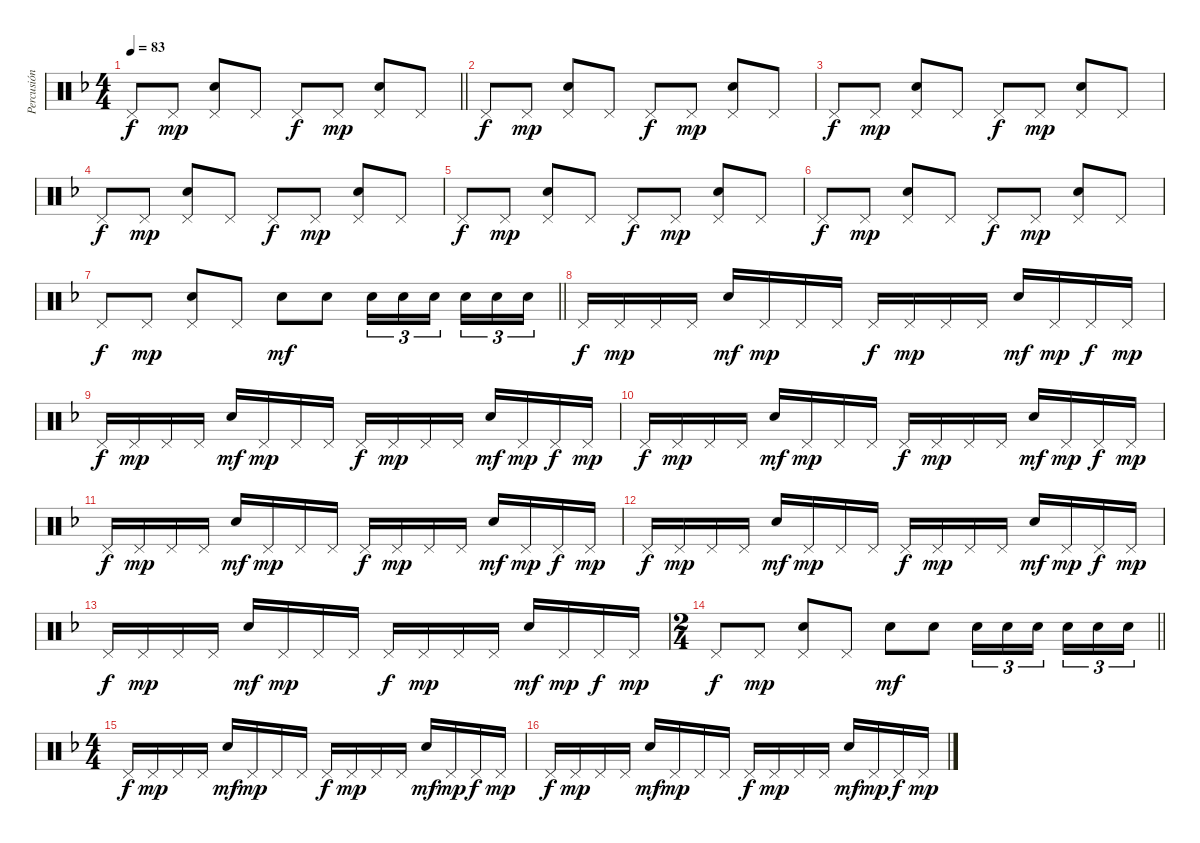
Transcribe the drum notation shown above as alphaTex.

\track ("Percusión" "Percusión") {instrument percussion}
\staff {score}
\articulation defaults
\ts (4 4)
\tempo 83
\clef neutral
\barLineRight lightlight
\ks dminor "Pedal Hi-Hat (hit)".8{dy f} "Pedal Hi-Hat (hit)".8{dy mp}
("Pedal Hi-Hat (hit)" "Electric Snare (hit)").8 "Pedal Hi-Hat (hit)".8 "Pedal Hi-Hat (hit)".8{dy f} "Pedal Hi-Hat (hit)".8{dy mp} ("Pedal Hi-Hat (hit)" "Electric Snare (hit)").8 "Pedal Hi-Hat (hit)".8 |
"Pedal Hi-Hat (hit)".8{dy f} "Pedal Hi-Hat (hit)".8{dy mp} ("Pedal Hi-Hat (hit)" "Electric Snare (hit)").8 "Pedal Hi-Hat (hit)".8 "Pedal Hi-Hat (hit)".8{dy f} "Pedal Hi-Hat (hit)".8{dy mp} ("Pedal Hi-Hat (hit)" "Electric Snare (hit)").8 "Pedal Hi-Hat (hit)".8 |
"Pedal Hi-Hat (hit)".8{dy f} "Pedal Hi-Hat (hit)".8{dy mp} ("Pedal Hi-Hat (hit)" "Electric Snare (hit)").8 "Pedal Hi-Hat (hit)".8 "Pedal Hi-Hat (hit)".8{dy f} "Pedal Hi-Hat (hit)".8{dy mp} ("Pedal Hi-Hat (hit)" "Electric Snare (hit)").8 "Pedal Hi-Hat (hit)".8 |
"Pedal Hi-Hat (hit)".8{dy f} "Pedal Hi-Hat (hit)".8{dy mp} ("Pedal Hi-Hat (hit)" "Electric Snare (hit)").8 "Pedal Hi-Hat (hit)".8 "Pedal Hi-Hat (hit)".8{dy f} "Pedal Hi-Hat (hit)".8{dy mp} ("Pedal Hi-Hat (hit)" "Electric Snare (hit)").8 "Pedal Hi-Hat (hit)".8 |
"Pedal Hi-Hat (hit)".8{dy f} "Pedal Hi-Hat (hit)".8{dy mp} ("Pedal Hi-Hat (hit)" "Electric Snare (hit)").8 "Pedal Hi-Hat (hit)".8 "Pedal Hi-Hat (hit)".8{dy f} "Pedal Hi-Hat (hit)".8{dy mp} ("Pedal Hi-Hat (hit)" "Electric Snare (hit)").8 "Pedal Hi-Hat (hit)".8 |
"Pedal Hi-Hat (hit)".8{dy f} "Pedal Hi-Hat (hit)".8{dy mp} ("Pedal Hi-Hat (hit)" "Electric Snare (hit)").8 "Pedal Hi-Hat (hit)".8 "Pedal Hi-Hat (hit)".8{dy f} "Pedal Hi-Hat (hit)".8{dy mp} ("Pedal Hi-Hat (hit)" "Electric Snare (hit)").8 "Pedal Hi-Hat (hit)".8 |
\barLineRight lightlight "Pedal Hi-Hat (hit)".8{dy f} "Pedal Hi-Hat (hit)".8{dy mp}
("Pedal Hi-Hat (hit)" "Electric Snare (hit)").8 "Pedal Hi-Hat (hit)".8 "Electric Snare (hit)".8{dy mf} "Electric Snare (hit)".8 "Electric Snare (hit)".16{tu (3 2)} "Electric Snare (hit)".16{tu (3 2)} "Electric Snare (hit)".16{tu (3 2) beam splitsecondary} "Electric Snare (hit)".16{tu (3 2)} "Electric Snare (hit)".16{tu (3 2)} "Electric Snare (hit)".16{tu (3 2)} |
"Pedal Hi-Hat (hit)".16{dy f} "Pedal Hi-Hat (hit)".16{dy mp} "Pedal Hi-Hat (hit)".16 "Pedal Hi-Hat (hit)".16 "Electric Snare (hit)".16{dy mf} "Pedal Hi-Hat (hit)".16{dy mp} "Pedal Hi-Hat (hit)".16 "Pedal Hi-Hat (hit)".16 "Pedal Hi-Hat (hit)".16{dy f} "Pedal Hi-Hat (hit)".16{dy mp} "Pedal Hi-Hat (hit)".16 "Pedal Hi-Hat (hit)".16 "Electric Snare (hit)".16{dy mf} "Pedal Hi-Hat (hit)".16{dy mp} "Pedal Hi-Hat (hit)".16{dy f} "Pedal Hi-Hat (hit)".16{dy mp} |
"Pedal Hi-Hat (hit)".16{dy f} "Pedal Hi-Hat (hit)".16{dy mp} "Pedal Hi-Hat (hit)".16 "Pedal Hi-Hat (hit)".16 "Electric Snare (hit)".16{dy mf} "Pedal Hi-Hat (hit)".16{dy mp} "Pedal Hi-Hat (hit)".16 "Pedal Hi-Hat (hit)".16 "Pedal Hi-Hat (hit)".16{dy f} "Pedal Hi-Hat (hit)".16{dy mp} "Pedal Hi-Hat (hit)".16 "Pedal Hi-Hat (hit)".16 "Electric Snare (hit)".16{dy mf} "Pedal Hi-Hat (hit)".16{dy mp} "Pedal Hi-Hat (hit)".16{dy f} "Pedal Hi-Hat (hit)".16{dy mp} |
"Pedal Hi-Hat (hit)".16{dy f} "Pedal Hi-Hat (hit)".16{dy mp} "Pedal Hi-Hat (hit)".16 "Pedal Hi-Hat (hit)".16 "Electric Snare (hit)".16{dy mf} "Pedal Hi-Hat (hit)".16{dy mp} "Pedal Hi-Hat (hit)".16 "Pedal Hi-Hat (hit)".16 "Pedal Hi-Hat (hit)".16{dy f} "Pedal Hi-Hat (hit)".16{dy mp} "Pedal Hi-Hat (hit)".16 "Pedal Hi-Hat (hit)".16 "Electric Snare (hit)".16{dy mf} "Pedal Hi-Hat (hit)".16{dy mp} "Pedal Hi-Hat (hit)".16{dy f} "Pedal Hi-Hat (hit)".16{dy mp} |
"Pedal Hi-Hat (hit)".16{dy f} "Pedal Hi-Hat (hit)".16{dy mp} "Pedal Hi-Hat (hit)".16 "Pedal Hi-Hat (hit)".16 "Electric Snare (hit)".16{dy mf} "Pedal Hi-Hat (hit)".16{dy mp} "Pedal Hi-Hat (hit)".16 "Pedal Hi-Hat (hit)".16 "Pedal Hi-Hat (hit)".16{dy f} "Pedal Hi-Hat (hit)".16{dy mp} "Pedal Hi-Hat (hit)".16 "Pedal Hi-Hat (hit)".16 "Electric Snare (hit)".16{dy mf} "Pedal Hi-Hat (hit)".16{dy mp} "Pedal Hi-Hat (hit)".16{dy f} "Pedal Hi-Hat (hit)".16{dy mp} |
"Pedal Hi-Hat (hit)".16{dy f} "Pedal Hi-Hat (hit)".16{dy mp} "Pedal Hi-Hat (hit)".16 "Pedal Hi-Hat (hit)".16 "Electric Snare (hit)".16{dy mf} "Pedal Hi-Hat (hit)".16{dy mp} "Pedal Hi-Hat (hit)".16 "Pedal Hi-Hat (hit)".16 "Pedal Hi-Hat (hit)".16{dy f} "Pedal Hi-Hat (hit)".16{dy mp} "Pedal Hi-Hat (hit)".16 "Pedal Hi-Hat (hit)".16 "Electric Snare (hit)".16{dy mf} "Pedal Hi-Hat (hit)".16{dy mp} "Pedal Hi-Hat (hit)".16{dy f} "Pedal Hi-Hat (hit)".16{dy mp} |
"Pedal Hi-Hat (hit)".16{dy f} "Pedal Hi-Hat (hit)".16{dy mp} "Pedal Hi-Hat (hit)".16 "Pedal Hi-Hat (hit)".16 "Electric Snare (hit)".16{dy mf} "Pedal Hi-Hat (hit)".16{dy mp} "Pedal Hi-Hat (hit)".16 "Pedal Hi-Hat (hit)".16 "Pedal Hi-Hat (hit)".16{dy f} "Pedal Hi-Hat (hit)".16{dy mp} "Pedal Hi-Hat (hit)".16 "Pedal Hi-Hat (hit)".16 "Electric Snare (hit)".16{dy mf} "Pedal Hi-Hat (hit)".16{dy mp} "Pedal Hi-Hat (hit)".16{dy f} "Pedal Hi-Hat (hit)".16{dy mp} |
\ts (2 4)
\barLineRight lightlight "Pedal Hi-Hat (hit)".8{dy f} "Pedal Hi-Hat (hit)".8{dy mp}
("Pedal Hi-Hat (hit)" "Electric Snare (hit)").8 "Pedal Hi-Hat (hit)".8 "Electric Snare (hit)".8{dy mf} "Electric Snare (hit)".8 "Electric Snare (hit)".16{tu (3 2)} "Electric Snare (hit)".16{tu (3 2)} "Electric Snare (hit)".16{tu (3 2) beam splitsecondary} "Electric Snare (hit)".16{tu (3 2)} "Electric Snare (hit)".16{tu (3 2)} "Electric Snare (hit)".16{tu (3 2)} |
\ts (4 4)
"Pedal Hi-Hat (hit)".16{dy f} "Pedal Hi-Hat (hit)".16{dy mp} "Pedal Hi-Hat (hit)".16 "Pedal Hi-Hat (hit)".16 "Electric Snare (hit)".16{dy mf} "Pedal Hi-Hat (hit)".16{dy mp} "Pedal Hi-Hat (hit)".16 "Pedal Hi-Hat (hit)".16 "Pedal Hi-Hat (hit)".16{dy f} "Pedal Hi-Hat (hit)".16{dy mp} "Pedal Hi-Hat (hit)".16 "Pedal Hi-Hat (hit)".16 "Electric Snare (hit)".16{dy mf} "Pedal Hi-Hat (hit)".16{dy mp} "Pedal Hi-Hat (hit)".16{dy f} "Pedal Hi-Hat (hit)".16{dy mp} |
"Pedal Hi-Hat (hit)".16{dy f} "Pedal Hi-Hat (hit)".16{dy mp} "Pedal Hi-Hat (hit)".16 "Pedal Hi-Hat (hit)".16 "Electric Snare (hit)".16{dy mf} "Pedal Hi-Hat (hit)".16{dy mp} "Pedal Hi-Hat (hit)".16 "Pedal Hi-Hat (hit)".16 "Pedal Hi-Hat (hit)".16{dy f} "Pedal Hi-Hat (hit)".16{dy mp} "Pedal Hi-Hat (hit)".16 "Pedal Hi-Hat (hit)".16 "Electric Snare (hit)".16{dy mf} "Pedal Hi-Hat (hit)".16{dy mp} "Pedal Hi-Hat (hit)".16{dy f} "Pedal Hi-Hat (hit)".16{dy mp}
